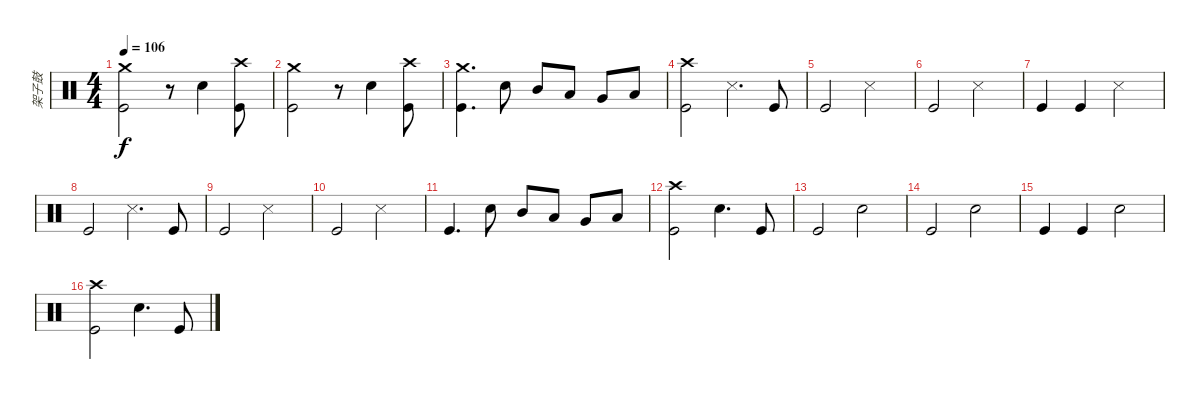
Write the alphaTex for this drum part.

\track ("架子鼓" "架子鼓") {instrument percussion}
\staff {score}
\articulation defaults
\ts (4 4)
\tempo 106
\clef neutral
\ks c
("Crash medium (hit)" "Kick (hit)").2{dy f} r.8 "Electric Snare (hit)".4 ("Crash high (hit)" "Kick (hit)").8 |
("Crash medium (hit)" "Kick (hit)").2 r.8 "Electric Snare (hit)".4 ("Crash high (hit)" "Kick (hit)").8 |
("Crash medium (hit)" "Kick (hit)").4{d} "Electric Snare (hit)".8 "Mid Tom (hit)".8 "Low Tom (hit)".8 "Very Low Tom (hit)".8 "Low Floor Tom (hit)".8 |
("Crash high (hit)" "Kick (hit)").2 "Snare (side stick) 3".4{d} "Kick (hit)".8 |
"Kick (hit)".2 "Snare (side stick) 3".2 |
"Kick (hit)".2 "Snare (side stick) 3".2 |
"Kick (hit)".4 "Kick (hit)".4 "Snare (side stick) 3".2 |
"Kick (hit)".2 "Snare (side stick) 3".4{d} "Kick (hit)".8 |
"Kick (hit)".2 "Snare (side stick) 3".2 |
"Kick (hit)".2 "Snare (side stick) 3".2 |
"Kick (hit)".4{d} "Electric Snare (hit)".8 "Mid Tom (hit)".8 "Low Tom (hit)".8 "Very Low Tom (hit)".8 "Low Floor Tom (hit)".8 |
("Crash high (hit)" "Kick (hit)").2 "Electric Snare (hit)".4{d} "Kick (hit)".8 |
"Kick (hit)".2 "Electric Snare (hit)".2 |
"Kick (hit)".2 "Electric Snare (hit)".2 |
"Kick (hit)".4 "Kick (hit)".4 "Electric Snare (hit)".2 |
("Crash high (hit)" "Kick (hit)").2 "Electric Snare (hit)".4{d} "Kick (hit)".8
